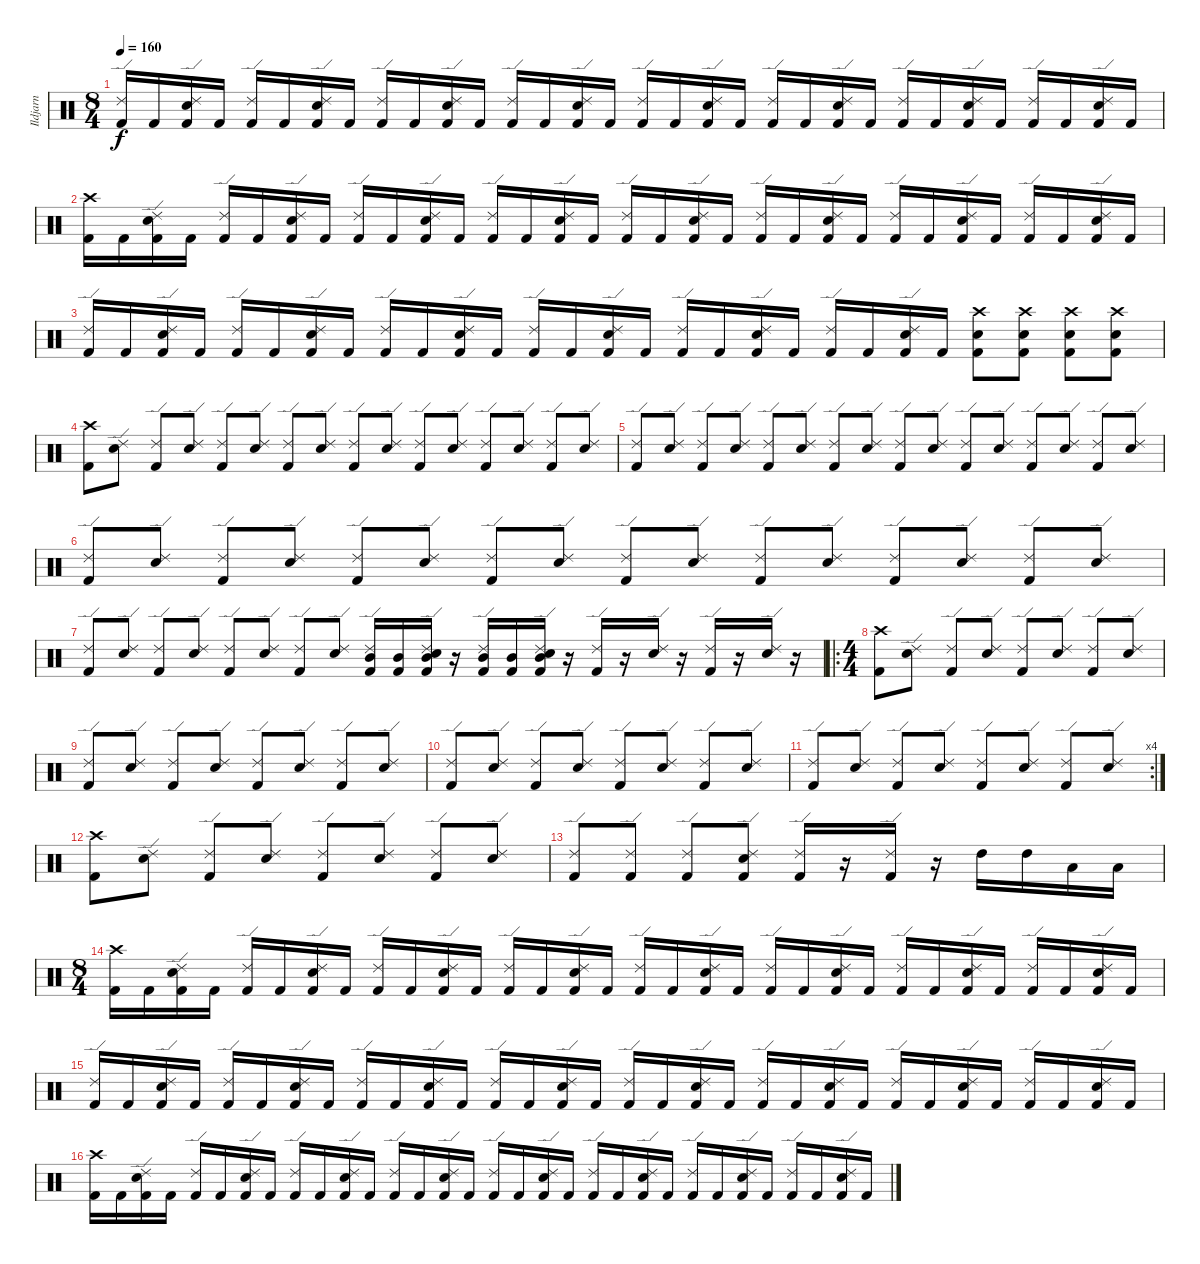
\track ("Ildjarn" "Ildjarn") {instrument percussion}
\staff {score}
\articulation defaults
\ts (8 4)
\tempo 160
\clef neutral
\ks c
("Ride (edge) 2" "Kick (hit) 2").16{dy f} "Kick (hit) 2".16 ("Ride (edge) 2" "Snare (hit) 2" "Kick (hit) 2").16 "Kick (hit) 2".16 ("Ride (edge) 2" "Kick (hit) 2").16 "Kick (hit) 2".16 ("Ride (edge) 2" "Snare (hit) 2" "Kick (hit) 2").16 "Kick (hit) 2".16 ("Ride (edge) 2" "Kick (hit) 2").16 "Kick (hit) 2".16 ("Ride (edge) 2" "Snare (hit) 2" "Kick (hit) 2").16 "Kick (hit) 2".16 ("Ride (edge) 2" "Kick (hit) 2").16 "Kick (hit) 2".16 ("Ride (edge) 2" "Snare (hit) 2" "Kick (hit) 2").16 "Kick (hit) 2".16 ("Ride (edge) 2" "Kick (hit) 2").16 "Kick (hit) 2".16 ("Ride (edge) 2" "Snare (hit) 2" "Kick (hit) 2").16 "Kick (hit) 2".16 ("Ride (edge) 2" "Kick (hit) 2").16 "Kick (hit) 2".16 ("Ride (edge) 2" "Snare (hit) 2" "Kick (hit) 2").16 "Kick (hit) 2".16 ("Ride (edge) 2" "Kick (hit) 2").16 "Kick (hit) 2".16 ("Ride (edge) 2" "Snare (hit) 2" "Kick (hit) 2").16 "Kick (hit) 2".16 ("Ride (edge) 2" "Kick (hit) 2").16 "Kick (hit) 2".16 ("Ride (edge) 2" "Snare (hit) 2" "Kick (hit) 2").16 "Kick (hit) 2".16 |
("Crash high (hit)" "Kick (hit) 2").16 "Kick (hit) 2".16 ("Ride (edge) 2" "Snare (hit) 2" "Kick (hit) 2").16 "Kick (hit) 2".16 ("Ride (edge) 2" "Kick (hit) 2").16 "Kick (hit) 2".16 ("Ride (edge) 2" "Snare (hit) 2" "Kick (hit) 2").16 "Kick (hit) 2".16 ("Ride (edge) 2" "Kick (hit) 2").16 "Kick (hit) 2".16 ("Ride (edge) 2" "Snare (hit) 2" "Kick (hit) 2").16 "Kick (hit) 2".16 ("Ride (edge) 2" "Kick (hit) 2").16 "Kick (hit) 2".16 ("Ride (edge) 2" "Snare (hit) 2" "Kick (hit) 2").16 "Kick (hit) 2".16 ("Ride (edge) 2" "Kick (hit) 2").16 "Kick (hit) 2".16 ("Ride (edge) 2" "Snare (hit) 2" "Kick (hit) 2").16 "Kick (hit) 2".16 ("Ride (edge) 2" "Kick (hit) 2").16 "Kick (hit) 2".16 ("Ride (edge) 2" "Snare (hit) 2" "Kick (hit) 2").16 "Kick (hit) 2".16 ("Ride (edge) 2" "Kick (hit) 2").16 "Kick (hit) 2".16 ("Ride (edge) 2" "Snare (hit) 2" "Kick (hit) 2").16 "Kick (hit) 2".16 ("Ride (edge) 2" "Kick (hit) 2").16 "Kick (hit) 2".16 ("Ride (edge) 2" "Snare (hit) 2" "Kick (hit) 2").16 "Kick (hit) 2".16 |
("Ride (edge) 2" "Kick (hit) 2").16 "Kick (hit) 2".16 ("Ride (edge) 2" "Snare (hit) 2" "Kick (hit) 2").16 "Kick (hit) 2".16 ("Ride (edge) 2" "Kick (hit) 2").16 "Kick (hit) 2".16 ("Ride (edge) 2" "Snare (hit) 2" "Kick (hit) 2").16 "Kick (hit) 2".16 ("Ride (edge) 2" "Kick (hit) 2").16 "Kick (hit) 2".16 ("Ride (edge) 2" "Snare (hit) 2" "Kick (hit) 2").16 "Kick (hit) 2".16 ("Ride (edge) 2" "Kick (hit) 2").16 "Kick (hit) 2".16 ("Ride (edge) 2" "Snare (hit) 2" "Kick (hit) 2").16 "Kick (hit) 2".16 ("Ride (edge) 2" "Kick (hit) 2").16 "Kick (hit) 2".16 ("Ride (edge) 2" "Snare (hit) 2" "Kick (hit) 2").16 "Kick (hit) 2".16 ("Ride (edge) 2" "Kick (hit) 2").16 "Kick (hit) 2".16 ("Ride (edge) 2" "Snare (hit) 2" "Kick (hit) 2").16 "Kick (hit) 2".16 ("Crash high (hit)" "Snare (hit) 2" "Kick (hit) 2").8 ("Crash high (hit)" "Snare (hit) 2" "Kick (hit) 2").8 ("Crash high (hit)" "Snare (hit) 2" "Kick (hit) 2").8 ("Crash high (hit)" "Snare (hit) 2" "Kick (hit) 2").8 |
("Crash high (hit)" "Kick (hit) 2").8 ("Ride (edge) 2" "Snare (hit) 2").8 ("Ride (edge) 2" "Kick (hit) 2").8 ("Ride (edge) 2" "Snare (hit) 2").8 ("Ride (edge) 2" "Kick (hit) 2").8 ("Ride (edge) 2" "Snare (hit) 2").8 ("Ride (edge) 2" "Kick (hit) 2").8 ("Ride (edge) 2" "Snare (hit) 2").8 ("Ride (edge) 2" "Kick (hit) 2").8 ("Ride (edge) 2" "Snare (hit) 2").8 ("Ride (edge) 2" "Kick (hit) 2").8 ("Ride (edge) 2" "Snare (hit) 2").8 ("Ride (edge) 2" "Kick (hit) 2").8 ("Ride (edge) 2" "Snare (hit) 2").8 ("Ride (edge) 2" "Kick (hit) 2").8 ("Ride (edge) 2" "Snare (hit) 2").8 |
("Ride (edge) 2" "Kick (hit) 2").8 ("Ride (edge) 2" "Snare (hit) 2").8 ("Ride (edge) 2" "Kick (hit) 2").8 ("Ride (edge) 2" "Snare (hit) 2").8 ("Ride (edge) 2" "Kick (hit) 2").8 ("Ride (edge) 2" "Snare (hit) 2").8 ("Ride (edge) 2" "Kick (hit) 2").8 ("Ride (edge) 2" "Snare (hit) 2").8 ("Ride (edge) 2" "Kick (hit) 2").8 ("Ride (edge) 2" "Snare (hit) 2").8 ("Ride (edge) 2" "Kick (hit) 2").8 ("Ride (edge) 2" "Snare (hit) 2").8 ("Ride (edge) 2" "Kick (hit) 2").8 ("Ride (edge) 2" "Snare (hit) 2").8 ("Ride (edge) 2" "Kick (hit) 2").8 ("Ride (edge) 2" "Snare (hit) 2").8 |
("Ride (edge) 2" "Kick (hit) 2").8 ("Ride (edge) 2" "Snare (hit) 2").8 ("Ride (edge) 2" "Kick (hit) 2").8 ("Ride (edge) 2" "Snare (hit) 2").8 ("Ride (edge) 2" "Kick (hit) 2").8 ("Ride (edge) 2" "Snare (hit) 2").8 ("Ride (edge) 2" "Kick (hit) 2").8 ("Ride (edge) 2" "Snare (hit) 2").8 ("Ride (edge) 2" "Kick (hit) 2").8 ("Ride (edge) 2" "Snare (hit) 2").8 ("Ride (edge) 2" "Kick (hit) 2").8 ("Ride (edge) 2" "Snare (hit) 2").8 ("Ride (edge) 2" "Kick (hit) 2").8 ("Ride (edge) 2" "Snare (hit) 2").8 ("Ride (edge) 2" "Kick (hit) 2").8 ("Ride (edge) 2" "Snare (hit) 2").8 |
("Ride (edge) 2" "Kick (hit) 2").8 ("Ride (edge) 2" "Snare (hit) 2").8 ("Ride (edge) 2" "Kick (hit) 2").8 ("Ride (edge) 2" "Snare (hit) 2").8 ("Ride (edge) 2" "Kick (hit) 2").8 ("Ride (edge) 2" "Snare (hit) 2").8 ("Ride (edge) 2" "Kick (hit) 2").8 ("Ride (edge) 2" "Snare (hit) 2").8 ("Mid Tom (hit)" "Ride (edge) 2" "Kick (hit) 2").16 ("Mid Tom (hit)" "Kick (hit) 2").16 ("Mid Tom (hit)" "Ride (edge) 2" "Snare (hit) 2" "Kick (hit) 2").16 r.16 ("Mid Tom (hit)" "Ride (edge) 2" "Kick (hit) 2").16 ("Mid Tom (hit)" "Kick (hit) 2").16 ("Mid Tom (hit)" "Ride (edge) 2" "Snare (hit) 2" "Kick (hit) 2").16 r.16 ("Ride (edge) 2" "Kick (hit) 2").16 r.16 ("Ride (edge) 2" "Snare (hit) 2").16 r.16 ("Ride (edge) 2" "Kick (hit) 2").16 r.16 ("Ride (edge) 2" "Snare (hit) 2").16 r.16 |
\ro
\ts (4 4)
("Crash high (hit)" "Kick (hit) 2").8 ("Ride (edge) 2" "Snare (hit) 2").8 ("Ride (edge) 2" "Kick (hit) 2").8 ("Ride (edge) 2" "Snare (hit) 2").8 ("Ride (edge) 2" "Kick (hit) 2").8 ("Ride (edge) 2" "Snare (hit) 2").8 ("Ride (edge) 2" "Kick (hit) 2").8 ("Ride (edge) 2" "Snare (hit) 2").8 |
("Ride (edge) 2" "Kick (hit) 2").8 ("Ride (edge) 2" "Snare (hit) 2").8 ("Ride (edge) 2" "Kick (hit) 2").8 ("Ride (edge) 2" "Snare (hit) 2").8 ("Ride (edge) 2" "Kick (hit) 2").8 ("Ride (edge) 2" "Snare (hit) 2").8 ("Ride (edge) 2" "Kick (hit) 2").8 ("Ride (edge) 2" "Snare (hit) 2").8 |
("Ride (edge) 2" "Kick (hit) 2").8 ("Ride (edge) 2" "Snare (hit) 2").8 ("Ride (edge) 2" "Kick (hit) 2").8 ("Ride (edge) 2" "Snare (hit) 2").8 ("Ride (edge) 2" "Kick (hit) 2").8 ("Ride (edge) 2" "Snare (hit) 2").8 ("Ride (edge) 2" "Kick (hit) 2").8 ("Ride (edge) 2" "Snare (hit) 2").8 |
\rc 4
("Ride (edge) 2" "Kick (hit) 2").8 ("Ride (edge) 2" "Snare (hit) 2").8 ("Ride (edge) 2" "Kick (hit) 2").8 ("Ride (edge) 2" "Snare (hit) 2").8 ("Ride (edge) 2" "Kick (hit) 2").8 ("Ride (edge) 2" "Snare (hit) 2").8 ("Ride (edge) 2" "Kick (hit) 2").8 ("Ride (edge) 2" "Snare (hit) 2").8 |
("Crash high (hit)" "Kick (hit) 2").8 ("Ride (edge) 2" "Snare (hit) 2").8 ("Ride (edge) 2" "Kick (hit) 2").8 ("Ride (edge) 2" "Snare (hit) 2").8 ("Ride (edge) 2" "Kick (hit) 2").8 ("Ride (edge) 2" "Snare (hit) 2").8 ("Ride (edge) 2" "Kick (hit) 2").8 ("Ride (edge) 2" "Snare (hit) 2").8 |
("Ride (edge) 2" "Kick (hit) 2").8 ("Ride (edge) 2" "Kick (hit) 2").8 ("Ride (edge) 2" "Kick (hit) 2").8 ("Ride (edge) 2" "Snare (hit) 2" "Kick (hit) 2").8 ("Ride (edge) 2" "Kick (hit) 2").16 r.16 ("Ride (edge) 2" "Kick (hit) 2").16 r.16 "High Tom (hit)".16 "High Tom (hit)".16 "Low Tom (hit)".16 "Low Tom (hit)".16 |
\ts (8 4)
("Crash high (hit)" "Kick (hit) 2").16 "Kick (hit) 2".16 ("Ride (edge) 2" "Snare (hit) 2" "Kick (hit) 2").16 "Kick (hit) 2".16 ("Ride (edge) 2" "Kick (hit) 2").16 "Kick (hit) 2".16 ("Ride (edge) 2" "Snare (hit) 2" "Kick (hit) 2").16 "Kick (hit) 2".16 ("Ride (edge) 2" "Kick (hit) 2").16 "Kick (hit) 2".16 ("Ride (edge) 2" "Snare (hit) 2" "Kick (hit) 2").16 "Kick (hit) 2".16 ("Ride (edge) 2" "Kick (hit) 2").16 "Kick (hit) 2".16 ("Ride (edge) 2" "Snare (hit) 2" "Kick (hit) 2").16 "Kick (hit) 2".16 ("Ride (edge) 2" "Kick (hit) 2").16 "Kick (hit) 2".16 ("Ride (edge) 2" "Snare (hit) 2" "Kick (hit) 2").16 "Kick (hit) 2".16 ("Ride (edge) 2" "Kick (hit) 2").16 "Kick (hit) 2".16 ("Ride (edge) 2" "Snare (hit) 2" "Kick (hit) 2").16 "Kick (hit) 2".16 ("Ride (edge) 2" "Kick (hit) 2").16 "Kick (hit) 2".16 ("Ride (edge) 2" "Snare (hit) 2" "Kick (hit) 2").16 "Kick (hit) 2".16 ("Ride (edge) 2" "Kick (hit) 2").16 "Kick (hit) 2".16 ("Ride (edge) 2" "Snare (hit) 2" "Kick (hit) 2").16 "Kick (hit) 2".16 |
("Ride (edge) 2" "Kick (hit) 2").16 "Kick (hit) 2".16 ("Ride (edge) 2" "Snare (hit) 2" "Kick (hit) 2").16 "Kick (hit) 2".16 ("Ride (edge) 2" "Kick (hit) 2").16 "Kick (hit) 2".16 ("Ride (edge) 2" "Snare (hit) 2" "Kick (hit) 2").16 "Kick (hit) 2".16 ("Ride (edge) 2" "Kick (hit) 2").16 "Kick (hit) 2".16 ("Ride (edge) 2" "Snare (hit) 2" "Kick (hit) 2").16 "Kick (hit) 2".16 ("Ride (edge) 2" "Kick (hit) 2").16 "Kick (hit) 2".16 ("Ride (edge) 2" "Snare (hit) 2" "Kick (hit) 2").16 "Kick (hit) 2".16 ("Ride (edge) 2" "Kick (hit) 2").16 "Kick (hit) 2".16 ("Ride (edge) 2" "Snare (hit) 2" "Kick (hit) 2").16 "Kick (hit) 2".16 ("Ride (edge) 2" "Kick (hit) 2").16 "Kick (hit) 2".16 ("Ride (edge) 2" "Snare (hit) 2" "Kick (hit) 2").16 "Kick (hit) 2".16 ("Ride (edge) 2" "Kick (hit) 2").16 "Kick (hit) 2".16 ("Ride (edge) 2" "Snare (hit) 2" "Kick (hit) 2").16 "Kick (hit) 2".16 ("Ride (edge) 2" "Kick (hit) 2").16 "Kick (hit) 2".16 ("Ride (edge) 2" "Snare (hit) 2" "Kick (hit) 2").16 "Kick (hit) 2".16 |
("Crash high (hit)" "Kick (hit) 2").16 "Kick (hit) 2".16 ("Ride (edge) 2" "Snare (hit) 2" "Kick (hit) 2").16 "Kick (hit) 2".16 ("Ride (edge) 2" "Kick (hit) 2").16 "Kick (hit) 2".16 ("Ride (edge) 2" "Snare (hit) 2" "Kick (hit) 2").16 "Kick (hit) 2".16 ("Ride (edge) 2" "Kick (hit) 2").16 "Kick (hit) 2".16 ("Ride (edge) 2" "Snare (hit) 2" "Kick (hit) 2").16 "Kick (hit) 2".16 ("Ride (edge) 2" "Kick (hit) 2").16 "Kick (hit) 2".16 ("Ride (edge) 2" "Snare (hit) 2" "Kick (hit) 2").16 "Kick (hit) 2".16 ("Ride (edge) 2" "Kick (hit) 2").16 "Kick (hit) 2".16 ("Ride (edge) 2" "Snare (hit) 2" "Kick (hit) 2").16 "Kick (hit) 2".16 ("Ride (edge) 2" "Kick (hit) 2").16 "Kick (hit) 2".16 ("Ride (edge) 2" "Snare (hit) 2" "Kick (hit) 2").16 "Kick (hit) 2".16 ("Ride (edge) 2" "Kick (hit) 2").16 "Kick (hit) 2".16 ("Ride (edge) 2" "Snare (hit) 2" "Kick (hit) 2").16 "Kick (hit) 2".16 ("Ride (edge) 2" "Kick (hit) 2").16 "Kick (hit) 2".16 ("Ride (edge) 2" "Snare (hit) 2" "Kick (hit) 2").16 "Kick (hit) 2".16
